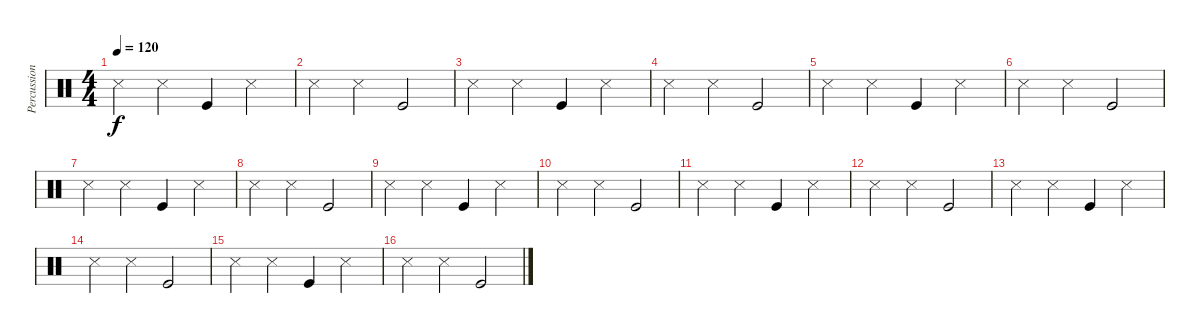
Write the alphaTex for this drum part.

\track ("Percussion" "Percussion") {instrument percussion}
\staff {score}
\articulation defaults
\ts (4 4)
\tempo 120
\clef neutral
\ks c "Snare (side stick) 3".4{dy f} "Snare (side stick) 3".4 "Kick (hit)".4 "Snare (side stick) 3".4
|
"Snare (side stick) 3".4 "Snare (side stick) 3".4 "Kick (hit)".2 |
"Snare (side stick) 3".4 "Snare (side stick) 3".4 "Kick (hit)".4 "Snare (side stick) 3".4 |
"Snare (side stick) 3".4 "Snare (side stick) 3".4 "Kick (hit)".2 |
"Snare (side stick) 3".4 "Snare (side stick) 3".4 "Kick (hit)".4 "Snare (side stick) 3".4 |
"Snare (side stick) 3".4 "Snare (side stick) 3".4 "Kick (hit)".2 |
"Snare (side stick) 3".4 "Snare (side stick) 3".4 "Kick (hit)".4 "Snare (side stick) 3".4 |
"Snare (side stick) 3".4 "Snare (side stick) 3".4 "Kick (hit)".2 |
"Snare (side stick) 3".4 "Snare (side stick) 3".4 "Kick (hit)".4 "Snare (side stick) 3".4 |
"Snare (side stick) 3".4 "Snare (side stick) 3".4 "Kick (hit)".2 |
"Snare (side stick) 3".4 "Snare (side stick) 3".4 "Kick (hit)".4 "Snare (side stick) 3".4 |
"Snare (side stick) 3".4 "Snare (side stick) 3".4 "Kick (hit)".2 |
"Snare (side stick) 3".4 "Snare (side stick) 3".4 "Kick (hit)".4 "Snare (side stick) 3".4 |
"Snare (side stick) 3".4 "Snare (side stick) 3".4 "Kick (hit)".2 |
"Snare (side stick) 3".4 "Snare (side stick) 3".4 "Kick (hit)".4 "Snare (side stick) 3".4 |
"Snare (side stick) 3".4 "Snare (side stick) 3".4 "Kick (hit)".2
